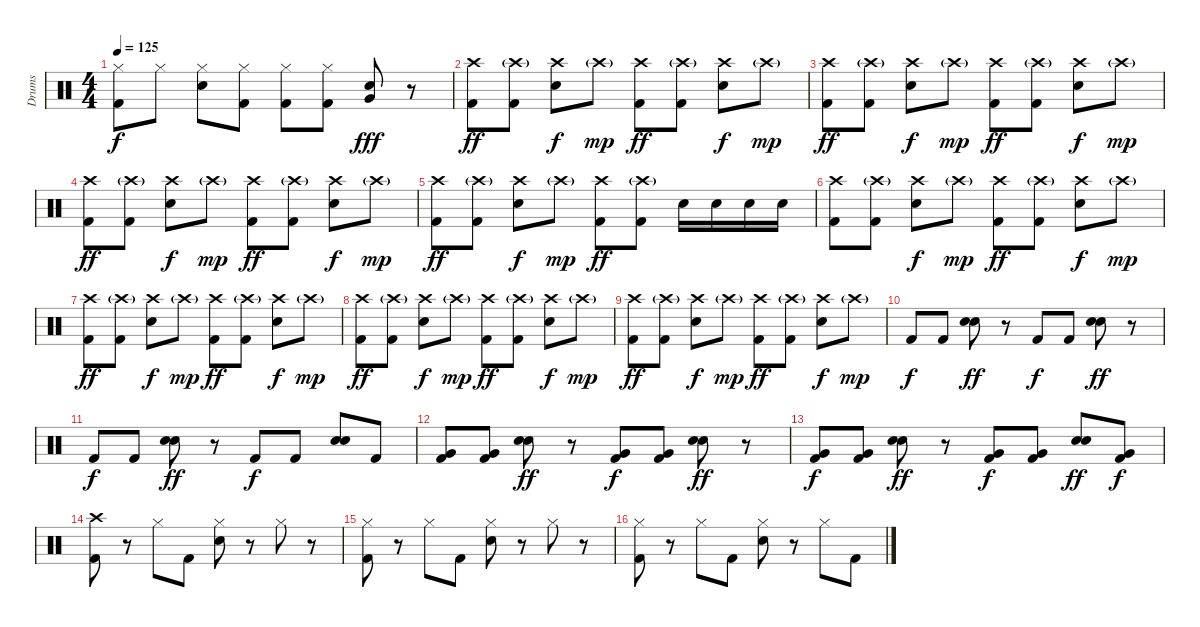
\track ("Drums" "Drums") {instrument percussion}
\staff {score}
\articulation defaults
\ts (4 4)
\tempo 125
\clef neutral
\ks c
("Hi-Hat (closed)" "Kick (hit) 2").8{dy f} "Hi-Hat (closed)".8 ("Hi-Hat (closed)" "Electric Snare (hit)").8 ("Hi-Hat (closed)" "Kick (hit) 2").8 ("Hi-Hat (closed)" "Kick (hit) 2").8 ("Hi-Hat (closed)" "Kick (hit) 2").8 ("Very Low Tom (hit)" "Electric Snare (hit)").8{bd 60 dy fff} r.8 |
("Crash high (hit)" "Kick (hit) 2").8{dy ff} ("Crash high (hit)"{g} "Kick (hit) 2").8 ("Crash high (hit)" "Electric Snare (hit)").8{dy f} "Crash high (hit)"{g}.8{dy mp} ("Crash high (hit)" "Kick (hit) 2").8{dy ff} ("Crash high (hit)"{g} "Kick (hit) 2").8 ("Crash high (hit)" "Electric Snare (hit)").8{dy f} "Crash high (hit)"{g}.8{dy mp} |
("Crash high (hit)" "Kick (hit) 2").8{dy ff} ("Crash high (hit)"{g} "Kick (hit) 2").8 ("Crash high (hit)" "Electric Snare (hit)").8{dy f} "Crash high (hit)"{g}.8{dy mp} ("Crash high (hit)" "Kick (hit) 2").8{dy ff} ("Crash high (hit)"{g} "Kick (hit) 2").8 ("Crash high (hit)" "Electric Snare (hit)").8{dy f} "Crash high (hit)"{g}.8{dy mp} |
("Crash high (hit)" "Kick (hit) 2").8{dy ff} ("Crash high (hit)"{g} "Kick (hit) 2").8 ("Crash high (hit)" "Electric Snare (hit)").8{dy f} "Crash high (hit)"{g}.8{dy mp} ("Crash high (hit)" "Kick (hit) 2").8{dy ff} ("Crash high (hit)"{g} "Kick (hit) 2").8 ("Crash high (hit)" "Electric Snare (hit)").8{dy f} "Crash high (hit)"{g}.8{dy mp} |
("Crash high (hit)" "Kick (hit) 2").8{dy ff} ("Crash high (hit)"{g} "Kick (hit) 2").8 ("Crash high (hit)" "Electric Snare (hit)").8{dy f} "Crash high (hit)"{g}.8{dy mp} ("Crash high (hit)" "Kick (hit) 2").8{dy ff} ("Crash high (hit)"{g} "Kick (hit) 2").8 "Electric Snare (hit)".16 "Electric Snare (hit)".16 "Electric Snare (hit)".16 "Electric Snare (hit)".16 |
("Crash high (hit)" "Kick (hit) 2").8 ("Crash high (hit)"{g} "Kick (hit) 2").8 ("Crash high (hit)" "Electric Snare (hit)").8{dy f} "Crash high (hit)"{g}.8{dy mp} ("Crash high (hit)" "Kick (hit) 2").8{dy ff} ("Crash high (hit)"{g} "Kick (hit) 2").8 ("Crash high (hit)" "Electric Snare (hit)").8{dy f} "Crash high (hit)"{g}.8{dy mp} |
("Crash high (hit)" "Kick (hit) 2").8{dy ff} ("Crash high (hit)"{g} "Kick (hit) 2").8 ("Crash high (hit)" "Electric Snare (hit)").8{dy f} "Crash high (hit)"{g}.8{dy mp} ("Crash high (hit)" "Kick (hit) 2").8{dy ff} ("Crash high (hit)"{g} "Kick (hit) 2").8 ("Crash high (hit)" "Electric Snare (hit)").8{dy f} "Crash high (hit)"{g}.8{dy mp} |
("Crash high (hit)" "Kick (hit) 2").8{dy ff} ("Crash high (hit)"{g} "Kick (hit) 2").8 ("Crash high (hit)" "Electric Snare (hit)").8{dy f} "Crash high (hit)"{g}.8{dy mp} ("Crash high (hit)" "Kick (hit) 2").8{dy ff} ("Crash high (hit)"{g} "Kick (hit) 2").8 ("Crash high (hit)" "Electric Snare (hit)").8{dy f} "Crash high (hit)"{g}.8{dy mp} |
("Crash high (hit)" "Kick (hit) 2").8{dy ff} ("Crash high (hit)"{g} "Kick (hit) 2").8 ("Crash high (hit)" "Electric Snare (hit)").8{dy f} "Crash high (hit)"{g}.8{dy mp} ("Crash high (hit)" "Kick (hit) 2").8{dy ff} ("Crash high (hit)"{g} "Kick (hit) 2").8 ("Crash high (hit)" "Electric Snare (hit)").8{dy f} "Crash high (hit)"{g}.8{dy mp} |
"Kick (hit) 2".8{dy f} "Kick (hit) 2".8 ("Electric Snare (hit)" "Electric Snare (hit)").8{bd 60 dy ff} r.8 "Kick (hit) 2".8{dy f} "Kick (hit) 2".8 ("Electric Snare (hit)" "Electric Snare (hit)").8{bd 60 dy ff} r.8 |
"Kick (hit) 2".8{dy f} "Kick (hit) 2".8 ("Electric Snare (hit)" "Electric Snare (hit)").8{bd 60 dy ff} r.8 "Kick (hit) 2".8{dy f} "Kick (hit) 2".8 ("Electric Snare (hit)" "Electric Snare (hit)").8{bd 60} "Kick (hit) 2".8 |
("Very Low Tom (hit)" "Kick (hit) 2").8 ("Very Low Tom (hit)" "Kick (hit) 2").8 ("Electric Snare (hit)" "Electric Snare (hit)").8{bd 60 dy ff} r.8 ("Very Low Tom (hit)" "Kick (hit) 2").8{dy f} ("Very Low Tom (hit)" "Kick (hit) 2").8 ("Electric Snare (hit)" "Electric Snare (hit)").8{bd 60 dy ff} r.8 |
("Very Low Tom (hit)" "Kick (hit) 2").8{dy f} ("Very Low Tom (hit)" "Kick (hit) 2").8 ("Electric Snare (hit)" "Electric Snare (hit)").8{bd 60 dy ff} r.8 ("Very Low Tom (hit)" "Kick (hit) 2").8{dy f} ("Very Low Tom (hit)" "Kick (hit) 2").8 ("Electric Snare (hit)" "Electric Snare (hit)").8{bd 60 dy ff} ("Very Low Tom (hit)" "Kick (hit) 2").8{dy f} |
("Crash high (hit)" "Kick (hit) 2").8 r.8 "Hi-Hat (closed)".8 "Kick (hit) 2".8 ("Hi-Hat (closed)" "Electric Snare (hit)").8 r.8 "Hi-Hat (closed)".8 r.8 |
("Hi-Hat (closed)" "Kick (hit) 2").8 r.8 "Hi-Hat (closed)".8 "Kick (hit) 2".8 ("Hi-Hat (closed)" "Electric Snare (hit)").8 r.8 "Hi-Hat (closed)".8 r.8 |
("Hi-Hat (closed)" "Kick (hit) 2").8 r.8 "Hi-Hat (closed)".8 "Kick (hit) 2".8 ("Hi-Hat (closed)" "Electric Snare (hit)").8 r.8 "Hi-Hat (closed)".8 "Kick (hit) 2".8
